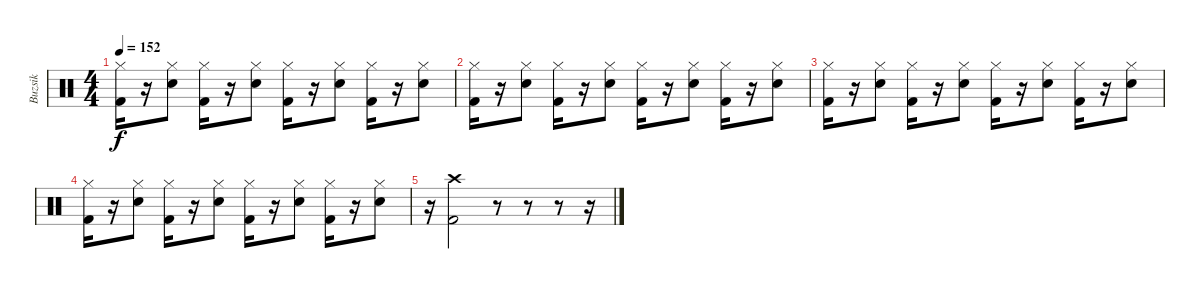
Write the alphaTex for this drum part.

\track ("Buzsik" "Buzsik") {instrument percussion}
\staff {score}
\articulation defaults
\ts (4 4)
\tempo 152
\clef neutral
\ks c
("Hi-Hat (closed)" "Kick (hit) 2").16{dy f} r.16 ("Hi-Hat (closed)" "Electric Snare (hit)").8 ("Hi-Hat (closed)" "Kick (hit) 2").16 r.16 ("Hi-Hat (closed)" "Electric Snare (hit)").8 ("Hi-Hat (closed)" "Kick (hit) 2").16 r.16 ("Hi-Hat (closed)" "Electric Snare (hit)").8 ("Hi-Hat (closed)" "Kick (hit) 2").16 r.16 ("Hi-Hat (closed)" "Electric Snare (hit)").8 |
("Hi-Hat (closed)" "Kick (hit) 2").16 r.16 ("Hi-Hat (closed)" "Electric Snare (hit)").8 ("Hi-Hat (closed)" "Kick (hit) 2").16 r.16 ("Hi-Hat (closed)" "Electric Snare (hit)").8 ("Hi-Hat (closed)" "Kick (hit) 2").16 r.16 ("Hi-Hat (closed)" "Electric Snare (hit)").8 ("Hi-Hat (closed)" "Kick (hit) 2").16 r.16 ("Hi-Hat (closed)" "Electric Snare (hit)").8 |
("Hi-Hat (closed)" "Kick (hit) 2").16 r.16 ("Hi-Hat (closed)" "Electric Snare (hit)").8 ("Hi-Hat (closed)" "Kick (hit) 2").16 r.16 ("Hi-Hat (closed)" "Electric Snare (hit)").8 ("Hi-Hat (closed)" "Kick (hit) 2").16 r.16 ("Hi-Hat (closed)" "Electric Snare (hit)").8 ("Hi-Hat (closed)" "Kick (hit) 2").16 r.16 ("Hi-Hat (closed)" "Electric Snare (hit)").8 |
("Hi-Hat (closed)" "Kick (hit) 2").16 r.16 ("Hi-Hat (closed)" "Electric Snare (hit)").8 ("Hi-Hat (closed)" "Kick (hit) 2").16 r.16 ("Hi-Hat (closed)" "Electric Snare (hit)").8 ("Hi-Hat (closed)" "Kick (hit) 2").16 r.16 ("Hi-Hat (closed)" "Electric Snare (hit)").8 ("Hi-Hat (closed)" "Kick (hit) 2").16 r.16 ("Hi-Hat (closed)" "Electric Snare (hit)").8 |
r.16 ("Crash high (hit)" "Kick (hit) 2").2 r.8 r.8 r.8 r.16
